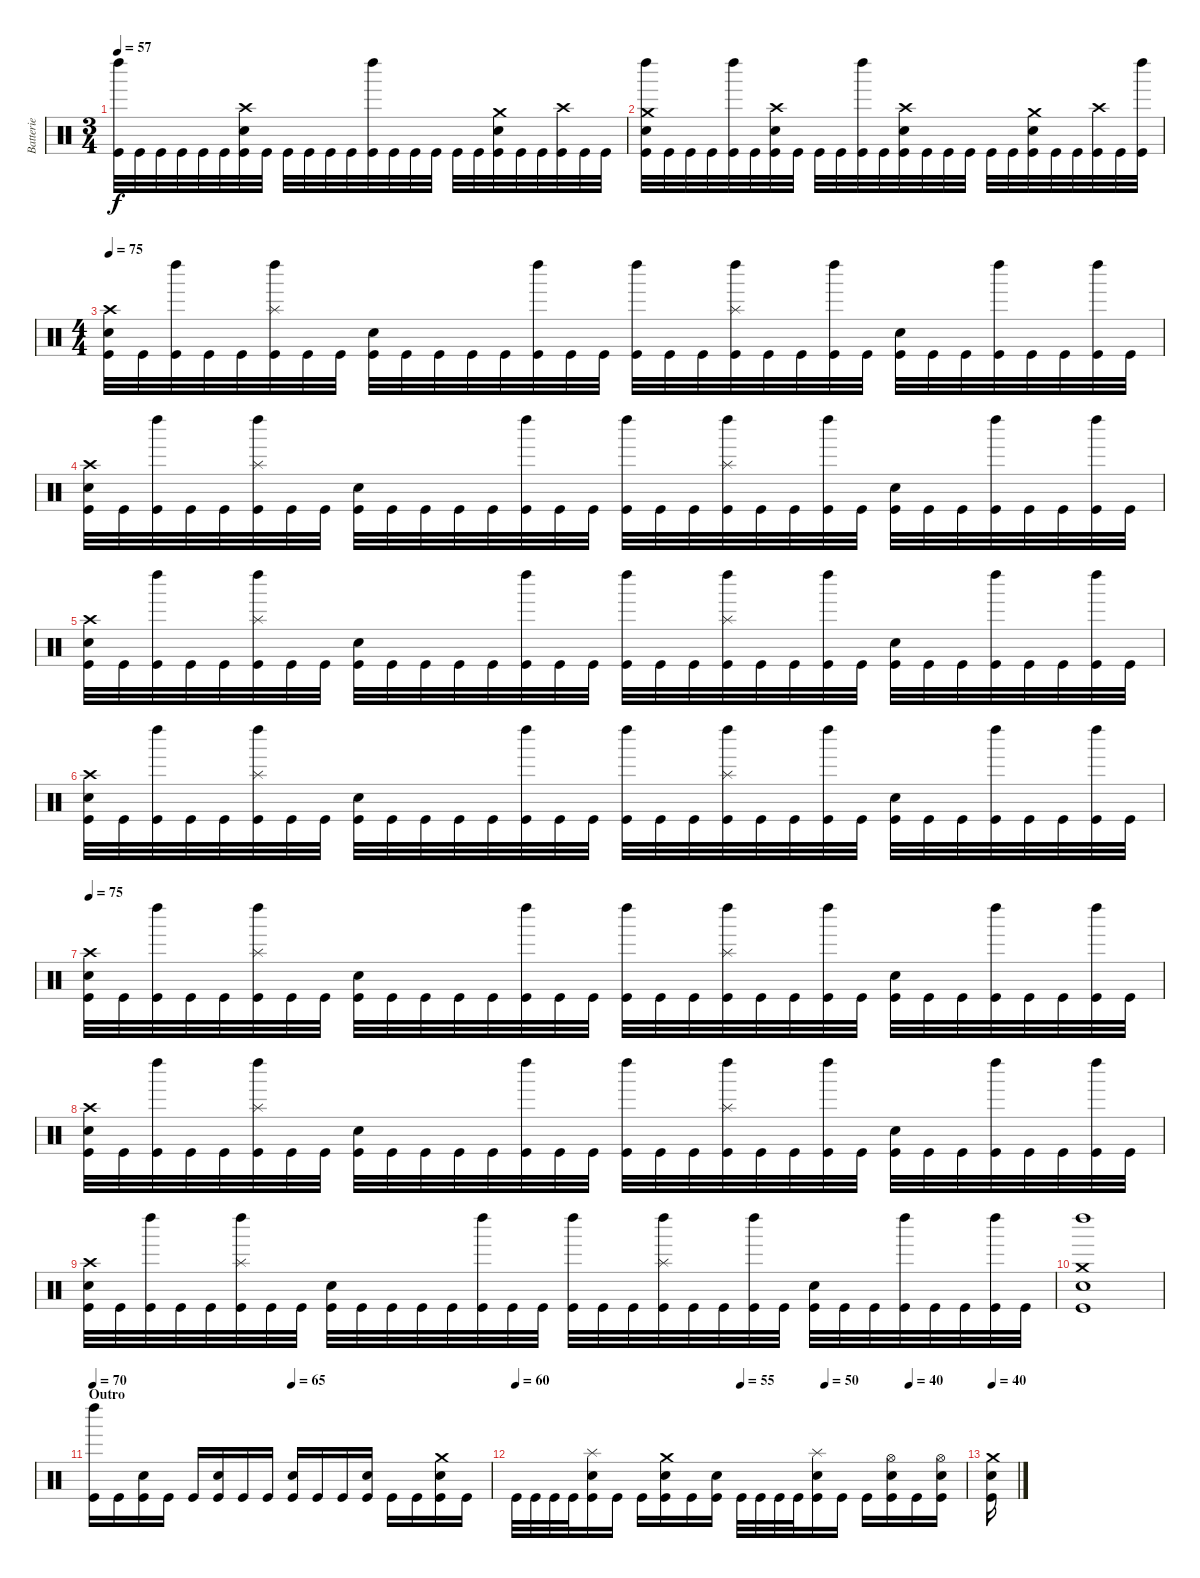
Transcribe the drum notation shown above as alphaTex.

\track ("Batterie" "Batterie") {instrument percussion}
\staff {score}
\articulation defaults
\ts (3 4)
\tempo 57
\clef neutral
\ks c
("Kick (hit)" "Left Maraca (hit)").32{dy f} "Kick (hit)".32 "Kick (hit)".32 "Kick (hit)".32 "Kick (hit)".32 "Kick (hit)".32 ("Kick (hit)" "Electric Snare (hit)" "Crash high (hit)").32 "Kick (hit)".32 "Kick (hit)".32 "Kick (hit)".32 "Kick (hit)".32 "Kick (hit)".32 ("Kick (hit)" "Left Maraca (hit)").32 "Kick (hit)".32 "Kick (hit)".32 "Kick (hit)".32 "Kick (hit)".32 "Kick (hit)".32 ("Kick (hit)" "Electric Snare (hit)" "Crash medium (hit)").32 "Kick (hit)".32 "Kick (hit)".32 ("Kick (hit)" "Crash high (hit)").32 "Kick (hit)".32 "Kick (hit)".32 |
("Kick (hit)" "Left Maraca (hit)" "Electric Snare (hit)" "Crash medium (hit)").32 "Kick (hit)".32 "Kick (hit)".32 "Kick (hit)".32 ("Kick (hit)" "Left Maraca (hit)").32 "Kick (hit)".32 ("Kick (hit)" "Electric Snare (hit)" "Crash high (hit)").32 "Kick (hit)".32 "Kick (hit)".32 "Kick (hit)".32 ("Kick (hit)" "Left Maraca (hit)").32 "Kick (hit)".32 ("Kick (hit)" "Electric Snare (hit)" "Crash high (hit)").32 "Kick (hit)".32 "Kick (hit)".32 "Kick (hit)".32 "Kick (hit)".32 "Kick (hit)".32 ("Kick (hit)" "Electric Snare (hit)" "Crash medium (hit)").32 "Kick (hit)".32 "Kick (hit)".32 ("Kick (hit)" "Crash high (hit)").32 "Kick (hit)".32 ("Kick (hit)" "Left Maraca (hit)").32 |
\ts (4 4)
\tempo 75
("Kick (hit)" "Electric Snare (hit)" "Crash high (hit)").32 "Kick (hit)".32 ("Kick (hit)" "Left Maraca (hit)").32 "Kick (hit)".32 "Kick (hit)".32 ("Kick (hit)" "Left Maraca (hit)" "Splash (hit)").32 "Kick (hit)".32 "Kick (hit)".32 ("Kick (hit)" "Electric Snare (hit)").32 "Kick (hit)".32 "Kick (hit)".32 "Kick (hit)".32 "Kick (hit)".32 ("Kick (hit)" "Left Maraca (hit)").32 "Kick (hit)".32 "Kick (hit)".32 ("Kick (hit)" "Left Maraca (hit)").32 "Kick (hit)".32 "Kick (hit)".32 ("Kick (hit)" "Left Maraca (hit)" "Splash (hit)").32 "Kick (hit)".32 "Kick (hit)".32 ("Kick (hit)" "Left Maraca (hit)").32 "Kick (hit)".32 ("Kick (hit)" "Electric Snare (hit)").32 "Kick (hit)".32 "Kick (hit)".32 ("Kick (hit)" "Left Maraca (hit)").32 "Kick (hit)".32 "Kick (hit)".32 ("Kick (hit)" "Left Maraca (hit)").32 "Kick (hit)".32 |
("Kick (hit)" "Electric Snare (hit)" "Crash high (hit)").32 "Kick (hit)".32 ("Kick (hit)" "Left Maraca (hit)").32 "Kick (hit)".32 "Kick (hit)".32 ("Kick (hit)" "Left Maraca (hit)" "Splash (hit)").32 "Kick (hit)".32 "Kick (hit)".32 ("Kick (hit)" "Electric Snare (hit)").32 "Kick (hit)".32 "Kick (hit)".32 "Kick (hit)".32 "Kick (hit)".32 ("Kick (hit)" "Left Maraca (hit)").32 "Kick (hit)".32 "Kick (hit)".32 ("Kick (hit)" "Left Maraca (hit)").32 "Kick (hit)".32 "Kick (hit)".32 ("Kick (hit)" "Left Maraca (hit)" "Splash (hit)").32 "Kick (hit)".32 "Kick (hit)".32 ("Kick (hit)" "Left Maraca (hit)").32 "Kick (hit)".32 ("Kick (hit)" "Electric Snare (hit)").32 "Kick (hit)".32 "Kick (hit)".32 ("Kick (hit)" "Left Maraca (hit)").32 "Kick (hit)".32 "Kick (hit)".32 ("Kick (hit)" "Left Maraca (hit)").32 "Kick (hit)".32 |
("Kick (hit)" "Electric Snare (hit)" "Crash high (hit)").32 "Kick (hit)".32 ("Kick (hit)" "Left Maraca (hit)").32 "Kick (hit)".32 "Kick (hit)".32 ("Kick (hit)" "Left Maraca (hit)" "Splash (hit)").32 "Kick (hit)".32 "Kick (hit)".32 ("Kick (hit)" "Electric Snare (hit)").32 "Kick (hit)".32 "Kick (hit)".32 "Kick (hit)".32 "Kick (hit)".32 ("Kick (hit)" "Left Maraca (hit)").32 "Kick (hit)".32 "Kick (hit)".32 ("Kick (hit)" "Left Maraca (hit)").32 "Kick (hit)".32 "Kick (hit)".32 ("Kick (hit)" "Left Maraca (hit)" "Splash (hit)").32 "Kick (hit)".32 "Kick (hit)".32 ("Kick (hit)" "Left Maraca (hit)").32 "Kick (hit)".32 ("Kick (hit)" "Electric Snare (hit)").32 "Kick (hit)".32 "Kick (hit)".32 ("Kick (hit)" "Left Maraca (hit)").32 "Kick (hit)".32 "Kick (hit)".32 ("Kick (hit)" "Left Maraca (hit)").32 "Kick (hit)".32 |
("Kick (hit)" "Electric Snare (hit)" "Crash high (hit)").32 "Kick (hit)".32 ("Kick (hit)" "Left Maraca (hit)").32 "Kick (hit)".32 "Kick (hit)".32 ("Kick (hit)" "Left Maraca (hit)" "Splash (hit)").32 "Kick (hit)".32 "Kick (hit)".32 ("Kick (hit)" "Electric Snare (hit)").32 "Kick (hit)".32 "Kick (hit)".32 "Kick (hit)".32 "Kick (hit)".32 ("Kick (hit)" "Left Maraca (hit)").32 "Kick (hit)".32 "Kick (hit)".32 ("Kick (hit)" "Left Maraca (hit)").32 "Kick (hit)".32 "Kick (hit)".32 ("Kick (hit)" "Left Maraca (hit)" "Splash (hit)").32 "Kick (hit)".32 "Kick (hit)".32 ("Kick (hit)" "Left Maraca (hit)").32 "Kick (hit)".32 ("Kick (hit)" "Electric Snare (hit)").32 "Kick (hit)".32 "Kick (hit)".32 ("Kick (hit)" "Left Maraca (hit)").32 "Kick (hit)".32 "Kick (hit)".32 ("Kick (hit)" "Left Maraca (hit)").32 "Kick (hit)".32 |
\tempo 75
("Kick (hit)" "Electric Snare (hit)" "Crash high (hit)").32 "Kick (hit)".32 ("Kick (hit)" "Left Maraca (hit)").32 "Kick (hit)".32 "Kick (hit)".32 ("Kick (hit)" "Left Maraca (hit)" "Splash (hit)").32 "Kick (hit)".32 "Kick (hit)".32 ("Kick (hit)" "Electric Snare (hit)").32 "Kick (hit)".32 "Kick (hit)".32 "Kick (hit)".32 "Kick (hit)".32 ("Kick (hit)" "Left Maraca (hit)").32 "Kick (hit)".32 "Kick (hit)".32 ("Kick (hit)" "Left Maraca (hit)").32 "Kick (hit)".32 "Kick (hit)".32 ("Kick (hit)" "Left Maraca (hit)" "Splash (hit)").32 "Kick (hit)".32 "Kick (hit)".32 ("Kick (hit)" "Left Maraca (hit)").32 "Kick (hit)".32 ("Kick (hit)" "Electric Snare (hit)").32 "Kick (hit)".32 "Kick (hit)".32 ("Kick (hit)" "Left Maraca (hit)").32 "Kick (hit)".32 "Kick (hit)".32 ("Kick (hit)" "Left Maraca (hit)").32 "Kick (hit)".32 |
("Kick (hit)" "Electric Snare (hit)" "Crash high (hit)").32 "Kick (hit)".32 ("Kick (hit)" "Left Maraca (hit)").32 "Kick (hit)".32 "Kick (hit)".32 ("Kick (hit)" "Left Maraca (hit)" "Splash (hit)").32 "Kick (hit)".32 "Kick (hit)".32 ("Kick (hit)" "Electric Snare (hit)").32 "Kick (hit)".32 "Kick (hit)".32 "Kick (hit)".32 "Kick (hit)".32 ("Kick (hit)" "Left Maraca (hit)").32 "Kick (hit)".32 "Kick (hit)".32 ("Kick (hit)" "Left Maraca (hit)").32 "Kick (hit)".32 "Kick (hit)".32 ("Kick (hit)" "Left Maraca (hit)" "Splash (hit)").32 "Kick (hit)".32 "Kick (hit)".32 ("Kick (hit)" "Left Maraca (hit)").32 "Kick (hit)".32 ("Kick (hit)" "Electric Snare (hit)").32 "Kick (hit)".32 "Kick (hit)".32 ("Kick (hit)" "Left Maraca (hit)").32 "Kick (hit)".32 "Kick (hit)".32 ("Kick (hit)" "Left Maraca (hit)").32 "Kick (hit)".32 |
("Kick (hit)" "Electric Snare (hit)" "Crash high (hit)").32 "Kick (hit)".32 ("Kick (hit)" "Left Maraca (hit)").32 "Kick (hit)".32 "Kick (hit)".32 ("Kick (hit)" "Left Maraca (hit)" "Splash (hit)").32 "Kick (hit)".32 "Kick (hit)".32 ("Kick (hit)" "Electric Snare (hit)").32 "Kick (hit)".32 "Kick (hit)".32 "Kick (hit)".32 "Kick (hit)".32 ("Kick (hit)" "Left Maraca (hit)").32 "Kick (hit)".32 "Kick (hit)".32 ("Kick (hit)" "Left Maraca (hit)").32 "Kick (hit)".32 "Kick (hit)".32 ("Kick (hit)" "Left Maraca (hit)" "Splash (hit)").32 "Kick (hit)".32 "Kick (hit)".32 ("Kick (hit)" "Left Maraca (hit)").32 "Kick (hit)".32 ("Kick (hit)" "Electric Snare (hit)").32 "Kick (hit)".32 "Kick (hit)".32 ("Kick (hit)" "Left Maraca (hit)").32 "Kick (hit)".32 "Kick (hit)".32 ("Kick (hit)" "Left Maraca (hit)").32 "Kick (hit)".32 |
("Kick (hit)" "Left Maraca (hit)" "Electric Snare (hit)" "Crash medium (hit)").1 |
\section ("" "Outro")
\tempo 70
\tempo (65 0.5)
("Kick (hit)" "Left Maraca (hit)").16 "Kick (hit)".16 ("Kick (hit)" "Electric Snare (hit)").16 "Kick (hit)".16 "Kick (hit)".16 ("Kick (hit)" "Electric Snare (hit)").16 "Kick (hit)".16 "Kick (hit)".16 ("Kick (hit)" "Electric Snare (hit)").16 "Kick (hit)".16 "Kick (hit)".16 ("Kick (hit)" "Electric Snare (hit)").16 "Kick (hit)".16 "Kick (hit)".16 ("Kick (hit)" "Electric Snare (hit)" "Crash medium (hit)").16 "Kick (hit)".16 |
\tempo 60
\tempo (55 0.5)
\tempo (50 0.6875)
\tempo (40 0.875)
"Kick (hit)".32 "Kick (hit)".32 "Kick (hit)".32 "Kick (hit)".32 ("Kick (hit)" "Electric Snare (hit)" "Splash (hit)").16 "Kick (hit)".16 "Kick (hit)".16 ("Kick (hit)" "Electric Snare (hit)" "Crash medium (hit)").16 "Kick (hit)".16 ("Kick (hit)" "Electric Snare (hit)").16 "Kick (hit)".32 "Kick (hit)".32 "Kick (hit)".32 "Kick (hit)".32 ("Kick (hit)" "Electric Snare (hit)" "Splash (hit)").16 "Kick (hit)".16 "Kick (hit)".16 ("Kick (hit)" "Electric Snare (hit)" "Hi-Hat (open)").16 "Kick (hit)".16 ("Kick (hit)" "Electric Snare (hit)" "Hi-Hat (open)").16 |
\tempo 40
("Kick (hit)" "Electric Snare (hit)" "Crash medium (hit)").16
